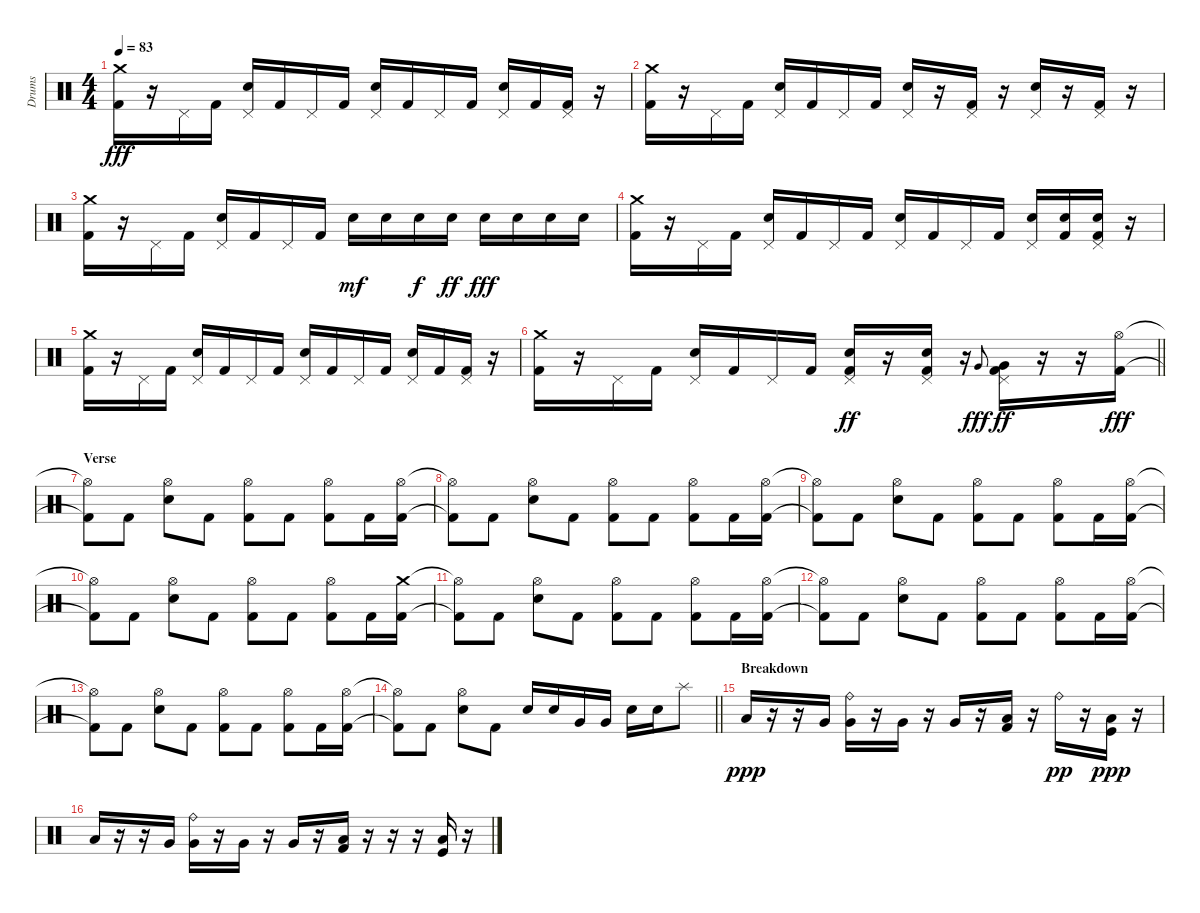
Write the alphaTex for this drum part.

\track ("Drums" "Drums") {instrument percussion}
\staff {score}
\articulation defaults
\ts (4 4)
\tempo 83
\clef neutral
\ks c
("Crash medium (hit)" "Kick (hit) 2").16{dy fff} r.16 "Pedal Hi-Hat (hit)".16 "Kick (hit) 2".16 ("Pedal Hi-Hat (hit)" "Snare (hit) 2").16 "Kick (hit) 2".16 "Pedal Hi-Hat (hit)".16 "Kick (hit) 2".16 ("Pedal Hi-Hat (hit)" "Snare (hit) 2").16 "Kick (hit) 2".16 "Pedal Hi-Hat (hit)".16 "Kick (hit) 2".16 ("Pedal Hi-Hat (hit)" "Snare (hit) 2").16 "Kick (hit) 2".16 ("Pedal Hi-Hat (hit)" "Kick (hit) 2").16 r.16 |
("Crash medium (hit)" "Kick (hit) 2").16 r.16 "Pedal Hi-Hat (hit)".16 "Kick (hit) 2".16 ("Pedal Hi-Hat (hit)" "Snare (hit) 2").16 "Kick (hit) 2".16 "Pedal Hi-Hat (hit)".16 "Kick (hit) 2".16 ("Pedal Hi-Hat (hit)" "Snare (hit) 2").16 r.16 ("Pedal Hi-Hat (hit)" "Kick (hit) 2").16 r.16 ("Pedal Hi-Hat (hit)" "Snare (hit) 2").16 r.16 ("Pedal Hi-Hat (hit)" "Kick (hit) 2").16 r.16 |
("Crash medium (hit)" "Kick (hit) 2").16 r.16 "Pedal Hi-Hat (hit)".16 "Kick (hit) 2".16 ("Pedal Hi-Hat (hit)" "Snare (hit) 2").16 "Kick (hit) 2".16 "Pedal Hi-Hat (hit)".16 "Kick (hit) 2".16 "Snare (hit) 2".16{dy mf} "Snare (hit) 2".16 "Snare (hit) 2".16{dy f} "Snare (hit) 2".16{dy ff} "Snare (hit) 2".16{dy fff} "Snare (hit) 2".16 "Snare (hit) 2".16 "Snare (hit) 2".16 |
("Crash medium (hit)" "Kick (hit) 2").16 r.16 "Pedal Hi-Hat (hit)".16 "Kick (hit) 2".16 ("Pedal Hi-Hat (hit)" "Snare (hit) 2").16 "Kick (hit) 2".16 "Pedal Hi-Hat (hit)".16 "Kick (hit) 2".16 ("Pedal Hi-Hat (hit)" "Snare (hit) 2").16 "Kick (hit) 2".16 "Pedal Hi-Hat (hit)".16 "Kick (hit) 2".16 ("Pedal Hi-Hat (hit)" "Snare (hit) 2").16 ("Snare (hit) 2" "Kick (hit) 2").16 ("Pedal Hi-Hat (hit)" "Snare (hit) 2" "Kick (hit) 2").16 r.16 |
("Crash medium (hit)" "Kick (hit) 2").16 r.16 "Pedal Hi-Hat (hit)".16 "Kick (hit) 2".16 ("Pedal Hi-Hat (hit)" "Snare (hit) 2").16 "Kick (hit) 2".16 "Pedal Hi-Hat (hit)".16 "Kick (hit) 2".16 ("Pedal Hi-Hat (hit)" "Snare (hit) 2").16 "Kick (hit) 2".16 "Pedal Hi-Hat (hit)".16 "Kick (hit) 2".16 ("Pedal Hi-Hat (hit)" "Snare (hit) 2").16 "Kick (hit) 2".16 ("Pedal Hi-Hat (hit)" "Kick (hit) 2").16 r.16 |
\barLineRight lightlight
("Crash medium (hit)" "Kick (hit) 2").16 r.16 "Pedal Hi-Hat (hit)".16 "Kick (hit) 2".16 ("Pedal Hi-Hat (hit)" "Snare (hit) 2").16 "Kick (hit) 2".16 "Pedal Hi-Hat (hit)".16 "Kick (hit) 2".16 ("Pedal Hi-Hat (hit)" "Snare (hit) 2" "Kick (hit) 2").16{dy ff} r.16 ("Pedal Hi-Hat (hit)" "Snare (hit) 2" "Kick (hit) 2").16 r.16 "Very Low Tom (hit)".8{gr onbeat dy fff} ("Pedal Hi-Hat (hit)" "Very Low Tom (hit)" "Kick (hit) 2").16{dy ff} r.16 r.16 ("Hi-Hat (open)" "Kick (hit) 2").16{dy fff} |
\section ("" "Verse")
("Hi-Hat (open)"{t} "Kick (hit) 2"{t}).8 "Kick (hit) 2".8 ("Hi-Hat (open)" "Snare (hit) 2").8 "Kick (hit) 2".8 ("Hi-Hat (open)" "Kick (hit) 2").8 "Kick (hit) 2".8 ("Hi-Hat (open)" "Kick (hit) 2").8 "Kick (hit) 2".16 ("Hi-Hat (open)" "Kick (hit) 2").16 |
("Hi-Hat (open)"{t} "Kick (hit) 2"{t}).8 "Kick (hit) 2".8 ("Hi-Hat (open)" "Snare (hit) 2").8 "Kick (hit) 2".8 ("Hi-Hat (open)" "Kick (hit) 2").8 "Kick (hit) 2".8 ("Hi-Hat (open)" "Kick (hit) 2").8 "Kick (hit) 2".16 ("Hi-Hat (open)" "Kick (hit) 2").16 |
("Hi-Hat (open)"{t} "Kick (hit) 2"{t}).8 "Kick (hit) 2".8 ("Hi-Hat (open)" "Snare (hit) 2").8 "Kick (hit) 2".8 ("Hi-Hat (open)" "Kick (hit) 2").8 "Kick (hit) 2".8 ("Hi-Hat (open)" "Kick (hit) 2").8 "Kick (hit) 2".16 ("Hi-Hat (open)" "Kick (hit) 2").16 |
("Hi-Hat (open)"{t} "Kick (hit) 2"{t}).8 "Kick (hit) 2".8 ("Hi-Hat (open)" "Snare (hit) 2").8 "Kick (hit) 2".8 ("Hi-Hat (open)" "Kick (hit) 2").8 "Kick (hit) 2".8 ("Hi-Hat (open)" "Kick (hit) 2").8 "Kick (hit) 2".16 ("Crash medium (hit)" "Kick (hit) 2").16 |
("Hi-Hat (open)"{t} "Kick (hit) 2"{t}).8 "Kick (hit) 2".8 ("Hi-Hat (open)" "Snare (hit) 2").8 "Kick (hit) 2".8 ("Hi-Hat (open)" "Kick (hit) 2").8 "Kick (hit) 2".8 ("Hi-Hat (open)" "Kick (hit) 2").8 "Kick (hit) 2".16 ("Hi-Hat (open)" "Kick (hit) 2").16 |
("Hi-Hat (open)"{t} "Kick (hit) 2"{t}).8 "Kick (hit) 2".8 ("Hi-Hat (open)" "Snare (hit) 2").8 "Kick (hit) 2".8 ("Hi-Hat (open)" "Kick (hit) 2").8 "Kick (hit) 2".8 ("Hi-Hat (open)" "Kick (hit) 2").8 "Kick (hit) 2".16 ("Hi-Hat (open)" "Kick (hit) 2").16 |
("Hi-Hat (open)"{t} "Kick (hit) 2"{t}).8 "Kick (hit) 2".8 ("Hi-Hat (open)" "Snare (hit) 2").8 "Kick (hit) 2".8 ("Hi-Hat (open)" "Kick (hit) 2").8 "Kick (hit) 2".8 ("Hi-Hat (open)" "Kick (hit) 2").8 "Kick (hit) 2".16 ("Hi-Hat (open)" "Kick (hit) 2").16 |
\barLineRight lightlight
("Hi-Hat (open)"{t} "Kick (hit) 2"{t}).8 "Kick (hit) 2".8 ("Hi-Hat (open)" "Snare (hit) 2").8 "Kick (hit) 2".8 "Snare (hit) 2".16 "Snare (hit) 2".16 "Very Low Tom (hit)".16 "Very Low Tom (hit)".16 "Snare (hit) 2".16 "Snare (hit) 2".16 "Splash (hit)".8 |
\section ("" "Breakdown")
"Low Tom (hit)".16{dy ppp} r.16 r.16 "Very Low Tom (hit)".16 ("Ride (bell)" "Very Low Tom (hit)").16 r.16 "Very Low Tom (hit)".16 r.16 "Very Low Tom (hit)".16 r.16 ("Low Floor Tom (hit)" "Kick (hit) 2").16 r.16 "Ride (bell)".16{dy pp} r.16 ("Low Floor Tom (hit)" "Kick (hit)").16{dy ppp} r.16 |
"Low Tom (hit)".16 r.16 r.16 "Very Low Tom (hit)".16 ("Ride (bell)" "Very Low Tom (hit)").16 r.16 "Very Low Tom (hit)".16 r.16 "Very Low Tom (hit)".16 r.16 ("Low Floor Tom (hit)" "Kick (hit) 2").16 r.16 r.16 r.16 ("Low Floor Tom (hit)" "Kick (hit)").16 r.16
